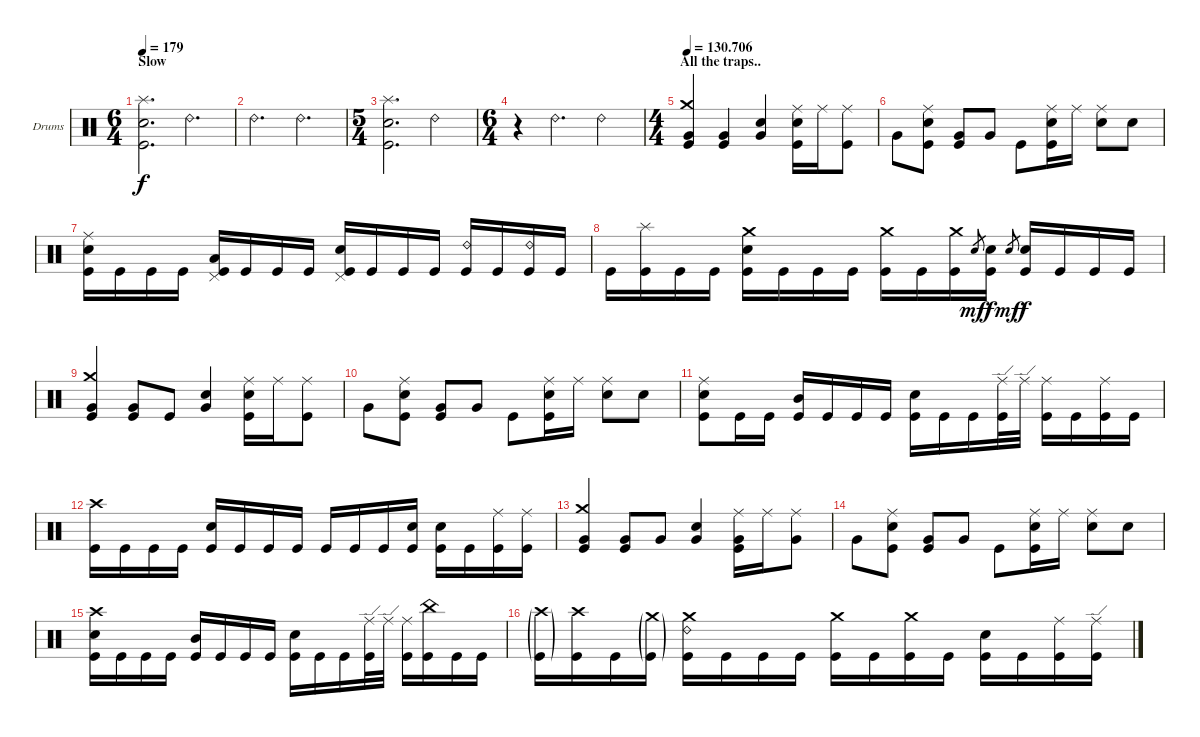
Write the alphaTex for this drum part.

\bracketExtendMode groupsimilarinstruments
\firstSystemTrackNameOrientation horizontal
\otherSystemsTrackNameOrientation horizontal
\track ("Drumkit" "Drums") {multiBarRest instrument percussion}
\staff {score}
\articulation defaults
\ts (6 4)
\section ("" "Slow")
\tempo 179
\clef neutral
\ks c
("Splash (hit)" "Kick (hit)" "Snare (hit) 2").2{d dy f} "Ride (bell) 2".2{d} |
"Ride (bell) 2".2{d} "Ride (bell) 2".2{d} |
\ts (5 4)
("Splash (hit)" "Kick (hit)" "Snare (hit) 2").2{d} "Ride (bell) 2".2 |
\ts (6 4)
r.4 "Ride (bell) 2".2{d} "Ride (bell) 2".2 |
\ts (4 4)
\section ("" "All the traps..")
\tempo (130.706 0.00625)
("Crash medium (hit)" "Very Low Tom (hit)" "Kick (hit)").4 ("Very Low Tom (hit)" "Kick (hit)").4 ("Snare (hit) 2" "Very Low Tom (hit)").4 ("Ride (middle)" "Snare (hit) 2" "Kick (hit)").16 "Ride (middle)".16 ("Ride (middle)" "Kick (hit)").8 |
"Very Low Tom (hit)".8 ("Ride (middle)" "Snare (hit) 2" "Kick (hit)").8 ("Very Low Tom (hit)" "Kick (hit)").8 "Very Low Tom (hit)".8 "Kick (hit)".8 ("Ride (middle)" "Snare (hit) 2" "Kick (hit)").16 "Ride (middle)".16 ("Ride (middle)" "Snare (hit) 2").8 "Snare (hit) 2".8 |
("Ride (middle)" "Snare (hit) 2" "Kick (hit)").16 "Kick (hit)".16 "Kick (hit)".16 "Kick (hit)".16 ("Pedal Hi-Hat (hit)" "Low Tom (hit)" "Kick (hit)").16 "Kick (hit)".16 "Kick (hit)".16 "Kick (hit)".16 ("Pedal Hi-Hat (hit)" "Snare (hit) 2" "Kick (hit)").16 "Kick (hit)".16 "Kick (hit)".16 "Kick (hit)".16 ("Ride (bell) 2" "Kick (hit)").16 "Kick (hit)".16 ("Ride (bell) 2" "Kick (hit)").16 "Kick (hit)".16 |
"Kick (hit)".16 ("Splash (hit)" "Kick (hit)").16 "Kick (hit)".16 "Kick (hit)".16 ("Snare (hit) 2" "Crash medium (hit)" "Kick (hit)").16 "Kick (hit)".16 "Kick (hit)".16 "Kick (hit)".16 ("Crash medium (hit)" "Kick (hit)").16 "Kick (hit)".16 ("Crash medium (hit)" "Kick (hit)").16 "Snare (hit) 2".8{gr dy mf} ("Snare (hit) 2" "Kick (hit)").16{dy f} "Snare (hit) 2".8{gr dy mf} ("Snare (hit) 2" "Kick (hit)").16{dy f} "Kick (hit)".16 "Kick (hit)".16 "Kick (hit)".16 |
("Crash medium (hit)" "Very Low Tom (hit)" "Kick (hit)").4 ("Very Low Tom (hit)" "Kick (hit)").8 "Kick (hit)".8 ("Snare (hit) 2" "Very Low Tom (hit)").4 ("Ride (middle)" "Snare (hit) 2" "Kick (hit)").16 "Ride (middle)".16 ("Ride (middle)" "Kick (hit)").8 |
"Very Low Tom (hit)".8 ("Ride (middle)" "Snare (hit) 2" "Kick (hit)").8 ("Very Low Tom (hit)" "Kick (hit)").8 "Very Low Tom (hit)".8 "Kick (hit)".8 ("Ride (middle)" "Snare (hit) 2" "Kick (hit)").16 "Ride (middle)".16 ("Ride (middle)" "Snare (hit) 2").8 "Snare (hit) 2".8 |
("Ride (middle)" "Snare (hit) 2" "Kick (hit)").8 "Kick (hit)".16 "Kick (hit)".16 ("Mid Tom (hit)" "Kick (hit)").16 "Kick (hit)".16 "Kick (hit)".16 "Kick (hit)".16 ("Snare (hit) 2" "Kick (hit)").16 "Kick (hit)".16 "Kick (hit)".16 ("Ride (edge)" "Kick (hit)").32 "Ride (edge)".32 ("Ride (middle)" "Kick (hit)").16 "Kick (hit)".16 ("Ride (middle)" "Kick (hit)").16 "Kick (hit)".16 |
("Crash high (hit)" "Kick (hit)").16 "Kick (hit)".16 "Kick (hit)".16 "Kick (hit)".16 ("Snare (hit) 2" "Kick (hit)").16 "Kick (hit)".16 "Kick (hit)".16 "Kick (hit)".16 "Kick (hit)".16 "Kick (hit)".16 "Kick (hit)".16 ("Snare (hit) 2" "Kick (hit)").16 ("Snare (hit) 2" "Kick (hit)").16 "Kick (hit)".16 ("Ride (middle)" "Kick (hit)").16 ("Ride (middle)" "Kick (hit)").16 |
("Crash medium (hit)" "Very Low Tom (hit)" "Kick (hit)").4 ("Very Low Tom (hit)" "Kick (hit)").8 "Very Low Tom (hit)".8 ("Snare (hit) 2" "Very Low Tom (hit)").4 ("Ride (middle)" "Very Low Tom (hit)" "Kick (hit)").16 "Ride (middle)".16 ("Ride (middle)" "Very Low Tom (hit)").8 |
"Very Low Tom (hit)".8 ("Ride (middle)" "Snare (hit) 2" "Kick (hit)").8 ("Very Low Tom (hit)" "Kick (hit)").8 "Very Low Tom (hit)".8 "Kick (hit)".8 ("Ride (middle)" "Snare (hit) 2" "Kick (hit)").16 "Ride (middle)".16 ("Ride (middle)" "Snare (hit) 2").8 "Snare (hit) 2".8 |
("Crash high (hit)" "Snare (hit) 2" "Kick (hit)").16 "Kick (hit)".16 "Kick (hit)".16 "Kick (hit)".16 ("Mid Tom (hit)" "Kick (hit)").16 "Kick (hit)".16 "Kick (hit)".16 "Kick (hit)".16 ("Snare (hit) 2" "Kick (hit)").16 "Kick (hit)".16 "Kick (hit)".16 ("Ride (edge)" "Kick (hit)").32 "Ride (edge)".32 ("Ride (middle)" "Kick (hit)").16 ("China (hit)" "Kick (hit)").16 "Kick (hit)".16 "Kick (hit)".16 |
("Crash high (hit)"{g} "Kick (hit)"{g}).16 ("Crash high (hit)" "Kick (hit)").16 "Kick (hit)".16 ("Crash medium (hit)"{g} "Kick (hit)"{g}).16 ("Crash medium (hit)" "Ride (bell) 2" "Kick (hit)").16 "Kick (hit)".16 "Kick (hit)".16 "Kick (hit)".16 ("Crash medium (hit)" "Kick (hit)").16 "Kick (hit)".16 ("Crash medium (hit)" "Kick (hit)").16 "Kick (hit)".16 ("Snare (hit) 2" "Kick (hit)").16 "Kick (hit)".16 ("Ride (middle)" "Kick (hit)").16 ("Ride (edge)" "Kick (hit)").16
